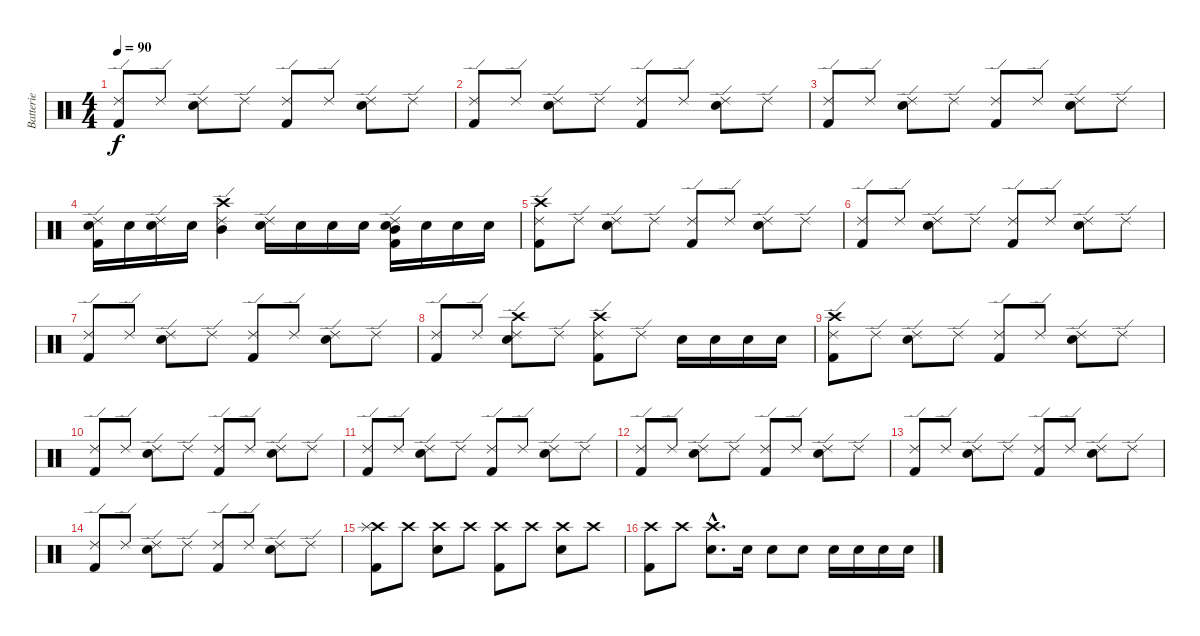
\track ("Batterie" "Batterie") {instrument percussion}
\staff {score}
\articulation defaults
\ts (4 4)
\tempo 90
\clef neutral
\ks c
("Ride (edge) 2" "Kick (hit) 2").8{dy f} "Ride (edge) 2".8 ("Ride (edge) 2" "Electric Snare (hit)").8 "Ride (edge) 2".8 ("Ride (edge) 2" "Kick (hit) 2").8 "Ride (edge) 2".8 ("Ride (edge) 2" "Electric Snare (hit)").8 "Ride (edge) 2".8 |
("Ride (edge) 2" "Kick (hit) 2").8 "Ride (edge) 2".8 ("Ride (edge) 2" "Electric Snare (hit)").8 "Ride (edge) 2".8 ("Ride (edge) 2" "Kick (hit) 2").8 "Ride (edge) 2".8 ("Ride (edge) 2" "Electric Snare (hit)").8 "Ride (edge) 2".8 |
("Ride (edge) 2" "Kick (hit) 2").8 "Ride (edge) 2".8 ("Ride (edge) 2" "Electric Snare (hit)").8 "Ride (edge) 2".8 ("Ride (edge) 2" "Kick (hit) 2").8 "Ride (edge) 2".8 ("Ride (edge) 2" "Electric Snare (hit)").8 "Ride (edge) 2".8 |
("Ride (edge) 2" "Kick (hit) 2" "Electric Snare (hit)").16 "Electric Snare (hit)".16 ("Ride (edge) 2" "Electric Snare (hit)").16 "Electric Snare (hit)".16 ("Ride (edge) 2" "Mid Tom (hit)" "Crash high (hit)").4 ("Ride (edge) 2" "Electric Snare (hit)").16 "Electric Snare (hit)".16 "Electric Snare (hit)".16 "Electric Snare (hit)".16 ("Ride (edge) 2" "Mid Tom (hit)" "Kick (hit) 2" "Electric Snare (hit)").16 "Electric Snare (hit)".16 "Electric Snare (hit)".16 "Electric Snare (hit)".16 |
("Ride (edge) 2" "Kick (hit) 2" "Crash high (hit)").8 "Ride (edge) 2".8 ("Ride (edge) 2" "Electric Snare (hit)").8 "Ride (edge) 2".8 ("Ride (edge) 2" "Kick (hit) 2").8 "Ride (edge) 2".8 ("Ride (edge) 2" "Electric Snare (hit)").8 "Ride (edge) 2".8 |
("Ride (edge) 2" "Kick (hit) 2").8 "Ride (edge) 2".8 ("Ride (edge) 2" "Electric Snare (hit)").8 "Ride (edge) 2".8 ("Ride (edge) 2" "Kick (hit) 2").8 "Ride (edge) 2".8 ("Ride (edge) 2" "Electric Snare (hit)").8 "Ride (edge) 2".8 |
("Ride (edge) 2" "Kick (hit) 2").8 "Ride (edge) 2".8 ("Ride (edge) 2" "Electric Snare (hit)").8 "Ride (edge) 2".8 ("Ride (edge) 2" "Kick (hit) 2").8 "Ride (edge) 2".8 ("Ride (edge) 2" "Electric Snare (hit)").8 "Ride (edge) 2".8 |
("Ride (edge) 2" "Kick (hit) 2").8 "Ride (edge) 2".8 ("Ride (edge) 2" "Electric Snare (hit)" "Crash high (hit)").8 "Ride (edge) 2".8 ("Ride (edge) 2" "Kick (hit) 2" "Crash high (hit)").8 "Ride (edge) 2".8 "Electric Snare (hit)".16 "Electric Snare (hit)".16 "Electric Snare (hit)".16 "Electric Snare (hit)".16 |
("Ride (edge) 2" "Kick (hit) 2" "Crash high (hit)").8 "Ride (edge) 2".8 ("Ride (edge) 2" "Electric Snare (hit)").8 "Ride (edge) 2".8 ("Ride (edge) 2" "Kick (hit) 2").8 "Ride (edge) 2".8 ("Ride (edge) 2" "Electric Snare (hit)").8 "Ride (edge) 2".8 |
("Ride (edge) 2" "Kick (hit) 2").8 "Ride (edge) 2".8 ("Ride (edge) 2" "Electric Snare (hit)").8 "Ride (edge) 2".8 ("Ride (edge) 2" "Kick (hit) 2").8 "Ride (edge) 2".8 ("Ride (edge) 2" "Electric Snare (hit)").8 "Ride (edge) 2".8 |
("Ride (edge) 2" "Kick (hit) 2").8 "Ride (edge) 2".8 ("Ride (edge) 2" "Electric Snare (hit)").8 "Ride (edge) 2".8 ("Ride (edge) 2" "Kick (hit) 2").8 "Ride (edge) 2".8 ("Ride (edge) 2" "Electric Snare (hit)").8 "Ride (edge) 2".8 |
("Ride (edge) 2" "Kick (hit) 2").8 "Ride (edge) 2".8 ("Ride (edge) 2" "Electric Snare (hit)").8 "Ride (edge) 2".8 ("Ride (edge) 2" "Kick (hit) 2").8 "Ride (edge) 2".8 ("Ride (edge) 2" "Electric Snare (hit)").8 "Ride (edge) 2".8 |
("Ride (edge) 2" "Kick (hit) 2").8 "Ride (edge) 2".8 ("Ride (edge) 2" "Electric Snare (hit)").8 "Ride (edge) 2".8 ("Ride (edge) 2" "Kick (hit) 2").8 "Ride (edge) 2".8 ("Ride (edge) 2" "Electric Snare (hit)").8 "Ride (edge) 2".8 |
("Ride (edge) 2" "Kick (hit) 2").8 "Ride (edge) 2".8 ("Ride (edge) 2" "Electric Snare (hit)").8 "Ride (edge) 2".8 ("Ride (edge) 2" "Kick (hit) 2").8 "Ride (edge) 2".8 ("Ride (edge) 2" "Electric Snare (hit)").8 "Ride (edge) 2".8 |
("Crash high (hit)" "Kick (hit) 2" "Splash (hit)").8 "Crash high (hit)".8 ("Crash high (hit)" "Electric Snare (hit)").8 "Crash high (hit)".8 ("Crash high (hit)" "Kick (hit) 2").8 "Crash high (hit)".8 ("Crash high (hit)" "Electric Snare (hit)").8 "Crash high (hit)".8 |
("Crash high (hit)" "Kick (hit) 2").8 "Crash high (hit)".8 ("Crash high (hit)"{hac} "Electric Snare (hit)"{hac}).8{d} "Electric Snare (hit)".16 "Electric Snare (hit)".8 "Electric Snare (hit)".8 "Electric Snare (hit)".16 "Electric Snare (hit)".16 "Electric Snare (hit)".16 "Electric Snare (hit)".16
